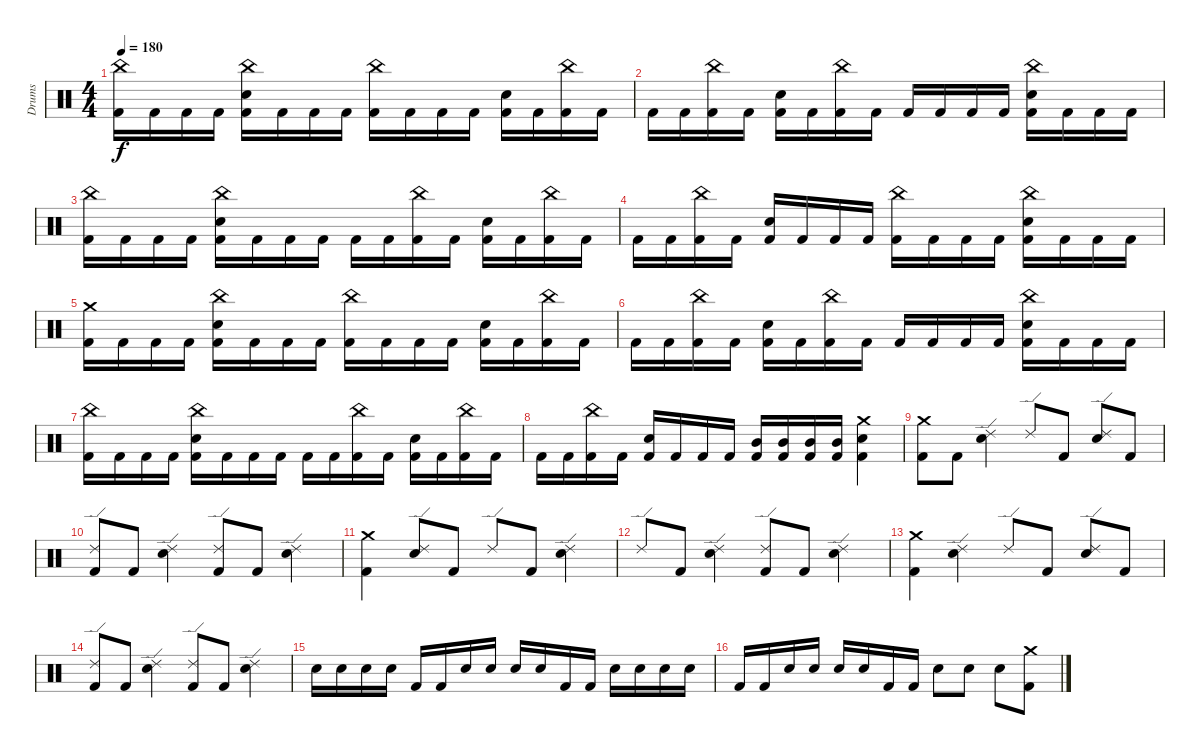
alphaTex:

\track ("Drums" "Drums") {instrument percussion}
\staff {score}
\articulation defaults
\ts (4 4)
\tempo 180
\clef neutral
\ks c
("China (hit)" "Kick (hit) 2").16{dy f} "Kick (hit) 2".16 "Kick (hit) 2".16 "Kick (hit) 2".16 ("China (hit)" "Electric Snare (hit)" "Kick (hit) 2").16 "Kick (hit) 2".16 "Kick (hit) 2".16 "Kick (hit) 2".16 ("China (hit)" "Kick (hit) 2").16 "Kick (hit) 2".16 "Kick (hit) 2".16 "Kick (hit) 2".16 ("Electric Snare (hit)" "Kick (hit) 2").16 "Kick (hit) 2".16 ("China (hit)" "Kick (hit) 2").16 "Kick (hit) 2".16 |
"Kick (hit) 2".16 "Kick (hit) 2".16 ("China (hit)" "Kick (hit) 2").16 "Kick (hit) 2".16 ("Electric Snare (hit)" "Kick (hit) 2").16 "Kick (hit) 2".16 ("China (hit)" "Kick (hit) 2").16 "Kick (hit) 2".16 "Kick (hit) 2".16 "Kick (hit) 2".16 "Kick (hit) 2".16 "Kick (hit) 2".16 ("China (hit)" "Electric Snare (hit)" "Kick (hit) 2").16 "Kick (hit) 2".16 "Kick (hit) 2".16 "Kick (hit) 2".16 |
("China (hit)" "Kick (hit) 2").16 "Kick (hit) 2".16 "Kick (hit) 2".16 "Kick (hit) 2".16 ("China (hit)" "Electric Snare (hit)" "Kick (hit) 2").16 "Kick (hit) 2".16 "Kick (hit) 2".16 "Kick (hit) 2".16 "Kick (hit) 2".16 "Kick (hit) 2".16 ("China (hit)" "Kick (hit) 2").16 "Kick (hit) 2".16 ("Electric Snare (hit)" "Kick (hit) 2").16 "Kick (hit) 2".16 ("China (hit)" "Kick (hit) 2").16 "Kick (hit) 2".16 |
"Kick (hit) 2".16 "Kick (hit) 2".16 ("China (hit)" "Kick (hit) 2").16 "Kick (hit) 2".16 ("Electric Snare (hit)" "Kick (hit) 2").16 "Kick (hit) 2".16 "Kick (hit) 2".16 "Kick (hit) 2".16 ("China (hit)" "Kick (hit) 2").16 "Kick (hit) 2".16 "Kick (hit) 2".16 "Kick (hit) 2".16 ("China (hit)" "Electric Snare (hit)" "Kick (hit) 2").16 "Kick (hit) 2".16 "Kick (hit) 2".16 "Kick (hit) 2".16 |
("Crash medium (hit)" "Kick (hit) 2").16 "Kick (hit) 2".16 "Kick (hit) 2".16 "Kick (hit) 2".16 ("China (hit)" "Electric Snare (hit)" "Kick (hit) 2").16 "Kick (hit) 2".16 "Kick (hit) 2".16 "Kick (hit) 2".16 ("China (hit)" "Kick (hit) 2").16 "Kick (hit) 2".16 "Kick (hit) 2".16 "Kick (hit) 2".16 ("Electric Snare (hit)" "Kick (hit) 2").16 "Kick (hit) 2".16 ("China (hit)" "Kick (hit) 2").16 "Kick (hit) 2".16 |
"Kick (hit) 2".16 "Kick (hit) 2".16 ("China (hit)" "Kick (hit) 2").16 "Kick (hit) 2".16 ("Electric Snare (hit)" "Kick (hit) 2").16 "Kick (hit) 2".16 ("China (hit)" "Kick (hit) 2").16 "Kick (hit) 2".16 "Kick (hit) 2".16 "Kick (hit) 2".16 "Kick (hit) 2".16 "Kick (hit) 2".16 ("China (hit)" "Electric Snare (hit)" "Kick (hit) 2").16 "Kick (hit) 2".16 "Kick (hit) 2".16 "Kick (hit) 2".16 |
("China (hit)" "Kick (hit) 2").16 "Kick (hit) 2".16 "Kick (hit) 2".16 "Kick (hit) 2".16 ("China (hit)" "Electric Snare (hit)" "Kick (hit) 2").16 "Kick (hit) 2".16 "Kick (hit) 2".16 "Kick (hit) 2".16 "Kick (hit) 2".16 "Kick (hit) 2".16 ("China (hit)" "Kick (hit) 2").16 "Kick (hit) 2".16 ("Electric Snare (hit)" "Kick (hit) 2").16 "Kick (hit) 2".16 ("China (hit)" "Kick (hit) 2").16 "Kick (hit) 2".16 |
"Kick (hit) 2".16 "Kick (hit) 2".16 ("China (hit)" "Kick (hit) 2").16 "Kick (hit) 2".16 ("Electric Snare (hit)" "Kick (hit) 2").16 "Kick (hit) 2".16 "Kick (hit) 2".16 "Kick (hit) 2".16 ("Mid Tom (hit)" "Kick (hit) 2").16 ("Mid Tom (hit)" "Kick (hit) 2").16 ("Mid Tom (hit)" "Kick (hit) 2").16 ("Mid Tom (hit)" "Kick (hit) 2").16 ("Crash medium (hit)" "Electric Snare (hit)" "Kick (hit) 2").4 |
("Crash medium (hit)" "Kick (hit) 2").8 "Kick (hit) 2".8 ("Ride (edge) 2" "Electric Snare (hit)").4 "Ride (edge) 2".8 "Kick (hit) 2".8 ("Ride (edge) 2" "Electric Snare (hit)").8 "Kick (hit) 2".8 |
("Ride (edge) 2" "Kick (hit) 2").8 "Kick (hit) 2".8 ("Ride (edge) 2" "Electric Snare (hit)").4 ("Ride (edge) 2" "Kick (hit) 2").8 "Kick (hit) 2".8 ("Ride (edge) 2" "Electric Snare (hit)").4 |
("Crash medium (hit)" "Kick (hit) 2").4 ("Ride (edge) 2" "Electric Snare (hit)").8 "Kick (hit) 2".8 "Ride (edge) 2".8 "Kick (hit) 2".8 ("Ride (edge) 2" "Electric Snare (hit)").4 |
"Ride (edge) 2".8 "Kick (hit) 2".8 ("Ride (edge) 2" "Electric Snare (hit)").4 ("Ride (edge) 2" "Kick (hit) 2").8 "Kick (hit) 2".8 ("Ride (edge) 2" "Electric Snare (hit)").4 |
("Crash medium (hit)" "Kick (hit) 2").4 ("Ride (edge) 2" "Electric Snare (hit)").4 "Ride (edge) 2".8 "Kick (hit) 2".8 ("Ride (edge) 2" "Electric Snare (hit)").8 "Kick (hit) 2".8 |
("Ride (edge) 2" "Kick (hit) 2").8 "Kick (hit) 2".8 ("Ride (edge) 2" "Electric Snare (hit)").4 ("Ride (edge) 2" "Kick (hit) 2").8 "Kick (hit) 2".8 ("Ride (edge) 2" "Electric Snare (hit)").4 |
"Electric Snare (hit)".16 "Electric Snare (hit)".16 "Electric Snare (hit)".16 "Electric Snare (hit)".16 "Kick (hit) 2".16 "Kick (hit) 2".16 "Electric Snare (hit)".16 "Electric Snare (hit)".16 "Electric Snare (hit)".16 "Electric Snare (hit)".16 "Kick (hit) 2".16 "Kick (hit) 2".16 "Electric Snare (hit)".16 "Electric Snare (hit)".16 "Electric Snare (hit)".16 "Electric Snare (hit)".16 |
"Kick (hit) 2".16 "Kick (hit) 2".16 "Electric Snare (hit)".16 "Electric Snare (hit)".16 "Electric Snare (hit)".16 "Electric Snare (hit)".16 "Kick (hit) 2".16 "Kick (hit) 2".16 "Electric Snare (hit)".8 "Electric Snare (hit)".8 "Electric Snare (hit)".8 ("Crash medium (hit)" "Kick (hit) 2").8
